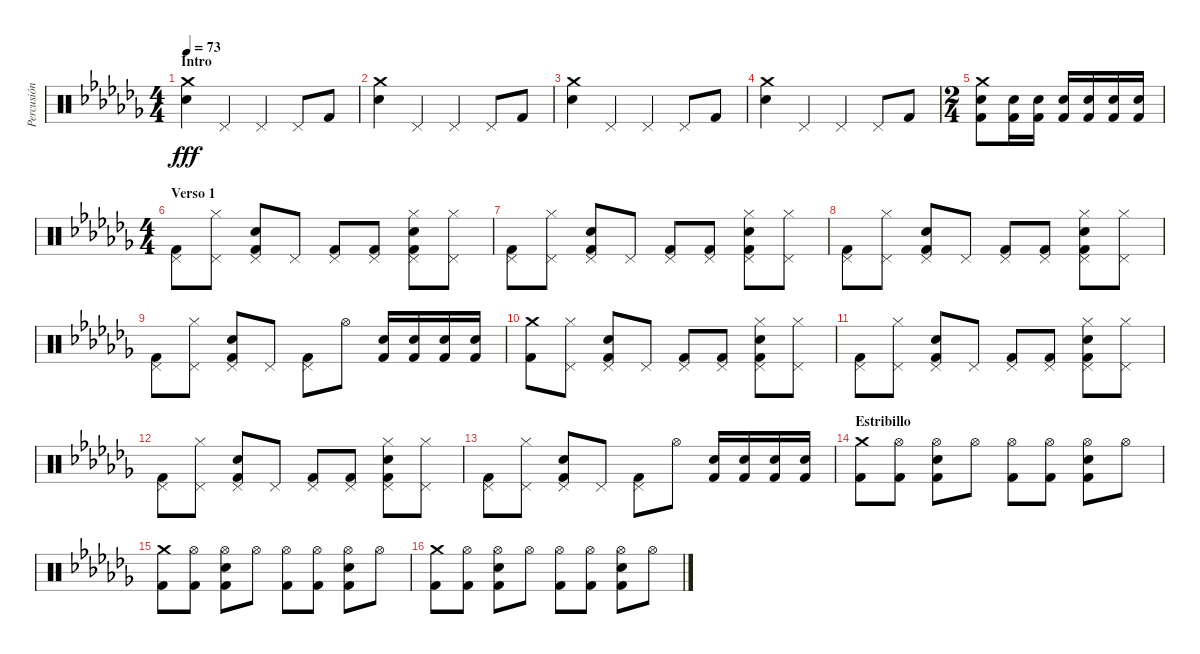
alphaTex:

\track ("Percusión" "Percusión") {instrument percussion}
\staff {score}
\articulation defaults
\ts (4 4)
\section ("" "Intro")
\tempo 73
\clef neutral
\ks abminor
("Crash medium (hit)" "Snare (hit) 2").4{dy fff} "Pedal Hi-Hat (hit)".4 "Pedal Hi-Hat (hit)".4 "Pedal Hi-Hat (hit)".8 "Kick (hit) 2".8 |
("Crash medium (hit)" "Snare (hit) 2").4 "Pedal Hi-Hat (hit)".4 "Pedal Hi-Hat (hit)".4 "Pedal Hi-Hat (hit)".8 "Kick (hit) 2".8 |
("Crash medium (hit)" "Snare (hit) 2").4 "Pedal Hi-Hat (hit)".4 "Pedal Hi-Hat (hit)".4 "Pedal Hi-Hat (hit)".8 "Kick (hit) 2".8 |
("Crash medium (hit)" "Snare (hit) 2").4 "Pedal Hi-Hat (hit)".4 "Pedal Hi-Hat (hit)".4 "Pedal Hi-Hat (hit)".8 "Kick (hit) 2".8 |
\ts (2 4)
("Crash medium (hit)" "Snare (hit) 2" "Kick (hit) 2").8 ("Snare (hit) 2" "Kick (hit) 2").16 ("Snare (hit) 2" "Kick (hit) 2").16 ("Snare (hit) 2" "Kick (hit) 2").16 ("Snare (hit) 2" "Kick (hit) 2").16 ("Snare (hit) 2" "Kick (hit) 2").16 ("Snare (hit) 2" "Kick (hit) 2").16 |
\ts (4 4)
\section ("" "Verso 1")
("Pedal Hi-Hat (hit)" "Kick (hit) 2").8 ("Pedal Hi-Hat (hit)" "Hi-Hat (closed)").8 ("Pedal Hi-Hat (hit)" "Snare (hit) 2" "Kick (hit) 2").8 "Pedal Hi-Hat (hit)".8 ("Pedal Hi-Hat (hit)" "Kick (hit) 2").8 ("Pedal Hi-Hat (hit)" "Kick (hit) 2").8 ("Pedal Hi-Hat (hit)" "Hi-Hat (closed)" "Snare (hit) 2" "Kick (hit) 2").8 ("Pedal Hi-Hat (hit)" "Hi-Hat (closed)").8 |
("Pedal Hi-Hat (hit)" "Kick (hit) 2").8 ("Pedal Hi-Hat (hit)" "Hi-Hat (closed)").8 ("Pedal Hi-Hat (hit)" "Snare (hit) 2" "Kick (hit) 2").8 "Pedal Hi-Hat (hit)".8 ("Pedal Hi-Hat (hit)" "Kick (hit) 2").8 ("Pedal Hi-Hat (hit)" "Kick (hit) 2").8 ("Pedal Hi-Hat (hit)" "Hi-Hat (closed)" "Snare (hit) 2" "Kick (hit) 2").8 ("Pedal Hi-Hat (hit)" "Hi-Hat (closed)").8 |
("Pedal Hi-Hat (hit)" "Kick (hit) 2").8 ("Pedal Hi-Hat (hit)" "Hi-Hat (closed)").8 ("Pedal Hi-Hat (hit)" "Snare (hit) 2" "Kick (hit) 2").8 "Pedal Hi-Hat (hit)".8 ("Pedal Hi-Hat (hit)" "Kick (hit) 2").8 ("Pedal Hi-Hat (hit)" "Kick (hit) 2").8 ("Pedal Hi-Hat (hit)" "Hi-Hat (closed)" "Snare (hit) 2" "Kick (hit) 2").8 ("Pedal Hi-Hat (hit)" "Hi-Hat (closed)").8 |
("Pedal Hi-Hat (hit)" "Kick (hit) 2").8 ("Pedal Hi-Hat (hit)" "Hi-Hat (closed)").8 ("Pedal Hi-Hat (hit)" "Snare (hit) 2" "Kick (hit) 2").8 "Pedal Hi-Hat (hit)".8 ("Pedal Hi-Hat (hit)" "Kick (hit) 2").8 "Hi-Hat (open)".8 ("Snare (hit) 2" "Kick (hit) 2").16 ("Snare (hit) 2" "Kick (hit) 2").16 ("Snare (hit) 2" "Kick (hit) 2").16 ("Snare (hit) 2" "Kick (hit) 2").16 |
("Crash medium (hit)" "Kick (hit) 2").8 ("Pedal Hi-Hat (hit)" "Hi-Hat (closed)").8 ("Pedal Hi-Hat (hit)" "Snare (hit) 2" "Kick (hit) 2").8 "Pedal Hi-Hat (hit)".8 ("Pedal Hi-Hat (hit)" "Kick (hit) 2").8 ("Pedal Hi-Hat (hit)" "Kick (hit) 2").8 ("Pedal Hi-Hat (hit)" "Hi-Hat (closed)" "Snare (hit) 2" "Kick (hit) 2").8 ("Pedal Hi-Hat (hit)" "Hi-Hat (closed)").8 |
("Pedal Hi-Hat (hit)" "Kick (hit) 2").8 ("Pedal Hi-Hat (hit)" "Hi-Hat (closed)").8 ("Pedal Hi-Hat (hit)" "Snare (hit) 2" "Kick (hit) 2").8 "Pedal Hi-Hat (hit)".8 ("Pedal Hi-Hat (hit)" "Kick (hit) 2").8 ("Pedal Hi-Hat (hit)" "Kick (hit) 2").8 ("Pedal Hi-Hat (hit)" "Hi-Hat (closed)" "Snare (hit) 2" "Kick (hit) 2").8 ("Pedal Hi-Hat (hit)" "Hi-Hat (closed)").8 |
("Pedal Hi-Hat (hit)" "Kick (hit) 2").8 ("Pedal Hi-Hat (hit)" "Hi-Hat (closed)").8 ("Pedal Hi-Hat (hit)" "Snare (hit) 2" "Kick (hit) 2").8 "Pedal Hi-Hat (hit)".8 ("Pedal Hi-Hat (hit)" "Kick (hit) 2").8 ("Pedal Hi-Hat (hit)" "Kick (hit) 2").8 ("Pedal Hi-Hat (hit)" "Hi-Hat (closed)" "Snare (hit) 2" "Kick (hit) 2").8 ("Pedal Hi-Hat (hit)" "Hi-Hat (closed)").8 |
("Pedal Hi-Hat (hit)" "Kick (hit) 2").8 ("Pedal Hi-Hat (hit)" "Hi-Hat (closed)").8 ("Pedal Hi-Hat (hit)" "Snare (hit) 2" "Kick (hit) 2").8 "Pedal Hi-Hat (hit)".8 ("Pedal Hi-Hat (hit)" "Kick (hit) 2").8 "Hi-Hat (open)".8 ("Snare (hit) 2" "Kick (hit) 2").16 ("Snare (hit) 2" "Kick (hit) 2").16 ("Snare (hit) 2" "Kick (hit) 2").16 ("Snare (hit) 2" "Kick (hit) 2").16 |
\section ("" "Estribillo")
("Crash medium (hit)" "Kick (hit) 2").8 ("Hi-Hat (open)" "Kick (hit) 2").8 ("Hi-Hat (open)" "Snare (hit) 2" "Kick (hit) 2").8 "Hi-Hat (open)".8 ("Hi-Hat (open)" "Kick (hit) 2").8 ("Hi-Hat (open)" "Kick (hit) 2").8 ("Hi-Hat (open)" "Snare (hit) 2" "Kick (hit) 2").8 "Hi-Hat (open)".8 |
("Crash medium (hit)" "Kick (hit) 2").8 ("Hi-Hat (open)" "Kick (hit) 2").8 ("Hi-Hat (open)" "Snare (hit) 2" "Kick (hit) 2").8 "Hi-Hat (open)".8 ("Hi-Hat (open)" "Kick (hit) 2").8 ("Hi-Hat (open)" "Kick (hit) 2").8 ("Hi-Hat (open)" "Snare (hit) 2" "Kick (hit) 2").8 "Hi-Hat (open)".8 |
("Crash medium (hit)" "Kick (hit) 2").8 ("Hi-Hat (open)" "Kick (hit) 2").8 ("Hi-Hat (open)" "Snare (hit) 2" "Kick (hit) 2").8 "Hi-Hat (open)".8 ("Hi-Hat (open)" "Kick (hit) 2").8 ("Hi-Hat (open)" "Kick (hit) 2").8 ("Hi-Hat (open)" "Snare (hit) 2" "Kick (hit) 2").8 "Hi-Hat (open)".8
